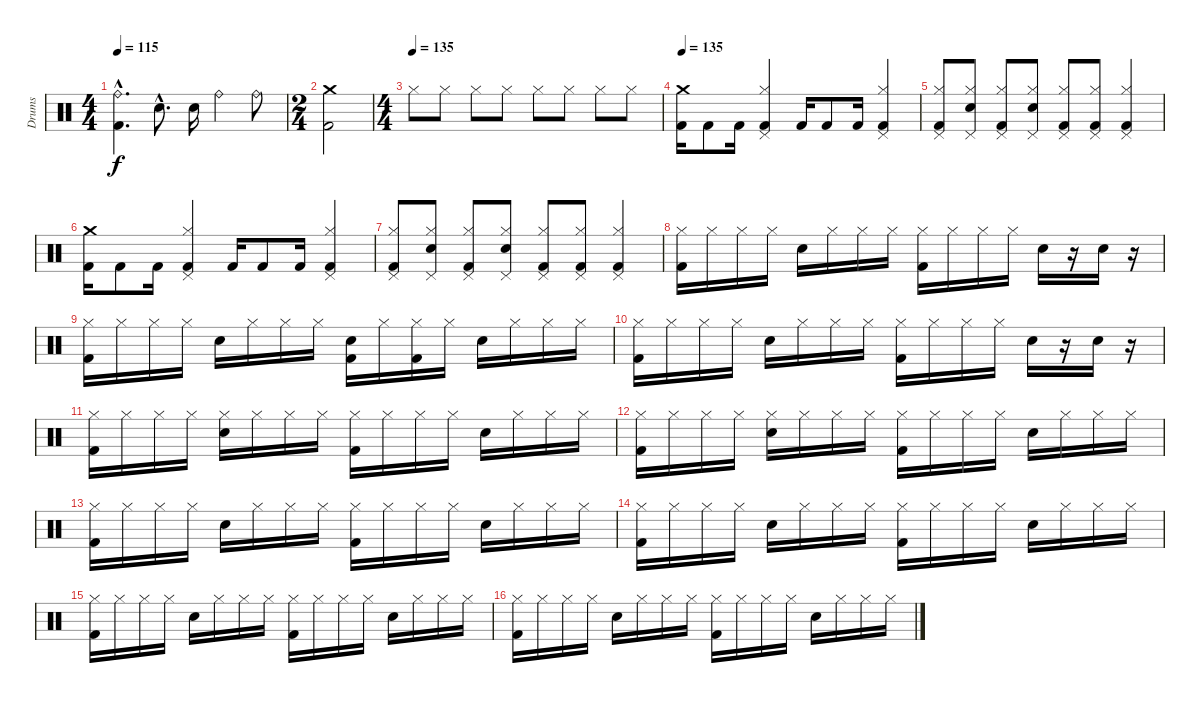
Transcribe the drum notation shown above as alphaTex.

\track ("Drums" "Drums") {instrument percussion}
\staff {score}
\articulation defaults
\ts (4 4)
\tempo 115
\clef neutral
\ks c
("Kick (hit) 2"{hac} "Ride (bell)"{hac}).4{d dy f} "Snare (hit) 2"{hac}.8{d} "Snare (hit) 2".16 "Ride (bell)".4 "Ride (bell)".8 |
\ts (2 4)
("Kick (hit) 2" "Crash medium (hit)").2 |
\ts (4 4)
\tempo (135)
"Hi-Hat (closed)".8 "Hi-Hat (closed)".8 "Hi-Hat (closed)".8 "Hi-Hat (closed)".8 "Hi-Hat (closed)".8 "Hi-Hat (closed)".8 "Hi-Hat (closed)".8 "Hi-Hat (closed)".8 |
\tempo 135
("Kick (hit) 2" "Crash medium (hit)").16 "Kick (hit) 2".8 "Kick (hit) 2".16 ("Kick (hit) 2" "Pedal Hi-Hat (hit)" "Hi-Hat (closed)").4 "Kick (hit) 2".16 "Kick (hit) 2".8 "Kick (hit) 2".16 ("Kick (hit) 2" "Pedal Hi-Hat (hit)" "Hi-Hat (closed)").4 |
("Kick (hit) 2" "Pedal Hi-Hat (hit)" "Hi-Hat (closed)").8 ("Snare (hit) 2" "Pedal Hi-Hat (hit)" "Hi-Hat (closed)").8 ("Kick (hit) 2" "Pedal Hi-Hat (hit)" "Hi-Hat (closed)").8 ("Snare (hit) 2" "Pedal Hi-Hat (hit)" "Hi-Hat (closed)").8 ("Kick (hit) 2" "Pedal Hi-Hat (hit)" "Hi-Hat (closed)").8 ("Kick (hit) 2" "Pedal Hi-Hat (hit)" "Hi-Hat (closed)").8 ("Kick (hit) 2" "Pedal Hi-Hat (hit)" "Hi-Hat (closed)").4 |
("Kick (hit) 2" "Crash medium (hit)").16 "Kick (hit) 2".8 "Kick (hit) 2".16 ("Kick (hit) 2" "Pedal Hi-Hat (hit)" "Hi-Hat (closed)").4 "Kick (hit) 2".16 "Kick (hit) 2".8 "Kick (hit) 2".16 ("Kick (hit) 2" "Pedal Hi-Hat (hit)" "Hi-Hat (closed)").4 |
("Kick (hit) 2" "Pedal Hi-Hat (hit)" "Hi-Hat (closed)").8 ("Snare (hit) 2" "Pedal Hi-Hat (hit)" "Hi-Hat (closed)").8 ("Kick (hit) 2" "Pedal Hi-Hat (hit)" "Hi-Hat (closed)").8 ("Snare (hit) 2" "Pedal Hi-Hat (hit)" "Hi-Hat (closed)").8 ("Kick (hit) 2" "Pedal Hi-Hat (hit)" "Hi-Hat (closed)").8 ("Kick (hit) 2" "Pedal Hi-Hat (hit)" "Hi-Hat (closed)").8 ("Kick (hit) 2" "Pedal Hi-Hat (hit)" "Hi-Hat (closed)").4 |
("Kick (hit) 2" "Hi-Hat (closed)").16{volume 5} "Hi-Hat (closed)".16 "Hi-Hat (closed)".16 "Hi-Hat (closed)".16 "Electric Snare (hit)".16 "Hi-Hat (closed)".16 "Hi-Hat (closed)".16 "Hi-Hat (closed)".16 ("Kick (hit) 2" "Hi-Hat (closed)").16 "Hi-Hat (closed)".16 "Hi-Hat (closed)".16 "Hi-Hat (closed)".16 "Electric Snare (hit)".16 r.16 "Electric Snare (hit)".16 r.16 |
("Kick (hit) 2" "Hi-Hat (closed)").16 "Hi-Hat (closed)".16 "Hi-Hat (closed)".16 "Hi-Hat (closed)".16 "Electric Snare (hit)".16 "Hi-Hat (closed)".16 "Hi-Hat (closed)".16 "Hi-Hat (closed)".16 ("Kick (hit) 2" "Snare (hit)").16 "Hi-Hat (closed)".16 ("Kick (hit) 2" "Hi-Hat (closed)").16 "Hi-Hat (closed)".16 "Electric Snare (hit)".16 "Hi-Hat (closed)".16 "Hi-Hat (closed)".16 "Hi-Hat (closed)".16 |
("Kick (hit) 2" "Hi-Hat (closed)").16 "Hi-Hat (closed)".16 "Hi-Hat (closed)".16 "Hi-Hat (closed)".16 "Electric Snare (hit)".16 "Hi-Hat (closed)".16 "Hi-Hat (closed)".16 "Hi-Hat (closed)".16 ("Kick (hit) 2" "Hi-Hat (closed)").16 "Hi-Hat (closed)".16 "Hi-Hat (closed)".16 "Hi-Hat (closed)".16 "Electric Snare (hit)".16 r.16 "Electric Snare (hit)".16 r.16 |
("Kick (hit) 2" "Hi-Hat (closed)").16 "Hi-Hat (closed)".16 "Hi-Hat (closed)".16 "Hi-Hat (closed)".16 ("Electric Snare (hit)" "Hi-Hat (closed)").16 "Hi-Hat (closed)".16 "Hi-Hat (closed)".16 "Hi-Hat (closed)".16 ("Kick (hit) 2" "Hi-Hat (closed)").16 "Hi-Hat (closed)".16 "Hi-Hat (closed)".16 "Hi-Hat (closed)".16 "Electric Snare (hit)".16 "Hi-Hat (closed)".16 "Hi-Hat (closed)".16 "Hi-Hat (closed)".16 |
("Kick (hit) 2" "Hi-Hat (closed)").16 "Hi-Hat (closed)".16 "Hi-Hat (closed)".16 "Hi-Hat (closed)".16 ("Electric Snare (hit)" "Hi-Hat (closed)").16 "Hi-Hat (closed)".16 "Hi-Hat (closed)".16 "Hi-Hat (closed)".16 ("Kick (hit) 2" "Hi-Hat (closed)").16 "Hi-Hat (closed)".16 "Hi-Hat (closed)".16 "Hi-Hat (closed)".16 "Electric Snare (hit)".16 "Hi-Hat (closed)".16 "Hi-Hat (closed)".16 "Hi-Hat (closed)".16 |
("Kick (hit) 2" "Hi-Hat (closed)").16 "Hi-Hat (closed)".16 "Hi-Hat (closed)".16 "Hi-Hat (closed)".16 "Electric Snare (hit)".16 "Hi-Hat (closed)".16 "Hi-Hat (closed)".16 "Hi-Hat (closed)".16 ("Kick (hit) 2" "Hi-Hat (closed)").16 "Hi-Hat (closed)".16 "Hi-Hat (closed)".16 "Hi-Hat (closed)".16 "Electric Snare (hit)".16 "Hi-Hat (closed)".16 "Hi-Hat (closed)".16 "Hi-Hat (closed)".16 |
("Kick (hit) 2" "Hi-Hat (closed)").16 "Hi-Hat (closed)".16 "Hi-Hat (closed)".16 "Hi-Hat (closed)".16 "Electric Snare (hit)".16 "Hi-Hat (closed)".16 "Hi-Hat (closed)".16 "Hi-Hat (closed)".16 ("Kick (hit) 2" "Hi-Hat (closed)").16 "Hi-Hat (closed)".16 "Hi-Hat (closed)".16 "Hi-Hat (closed)".16 "Electric Snare (hit)".16 "Hi-Hat (closed)".16 "Hi-Hat (closed)".16 "Hi-Hat (closed)".16 |
("Kick (hit) 2" "Hi-Hat (closed)").16 "Hi-Hat (closed)".16 "Hi-Hat (closed)".16 "Hi-Hat (closed)".16 "Electric Snare (hit)".16 "Hi-Hat (closed)".16 "Hi-Hat (closed)".16 "Hi-Hat (closed)".16 ("Kick (hit) 2" "Hi-Hat (closed)").16 "Hi-Hat (closed)".16 "Hi-Hat (closed)".16 "Hi-Hat (closed)".16 "Electric Snare (hit)".16 "Hi-Hat (closed)".16 "Hi-Hat (closed)".16 "Hi-Hat (closed)".16 |
("Kick (hit) 2" "Hi-Hat (closed)").16 "Hi-Hat (closed)".16 "Hi-Hat (closed)".16 "Hi-Hat (closed)".16 "Electric Snare (hit)".16 "Hi-Hat (closed)".16 "Hi-Hat (closed)".16 "Hi-Hat (closed)".16 ("Kick (hit) 2" "Hi-Hat (closed)").16 "Hi-Hat (closed)".16 "Hi-Hat (closed)".16 "Hi-Hat (closed)".16 "Electric Snare (hit)".16 "Hi-Hat (closed)".16 "Hi-Hat (closed)".16 "Hi-Hat (closed)".16
